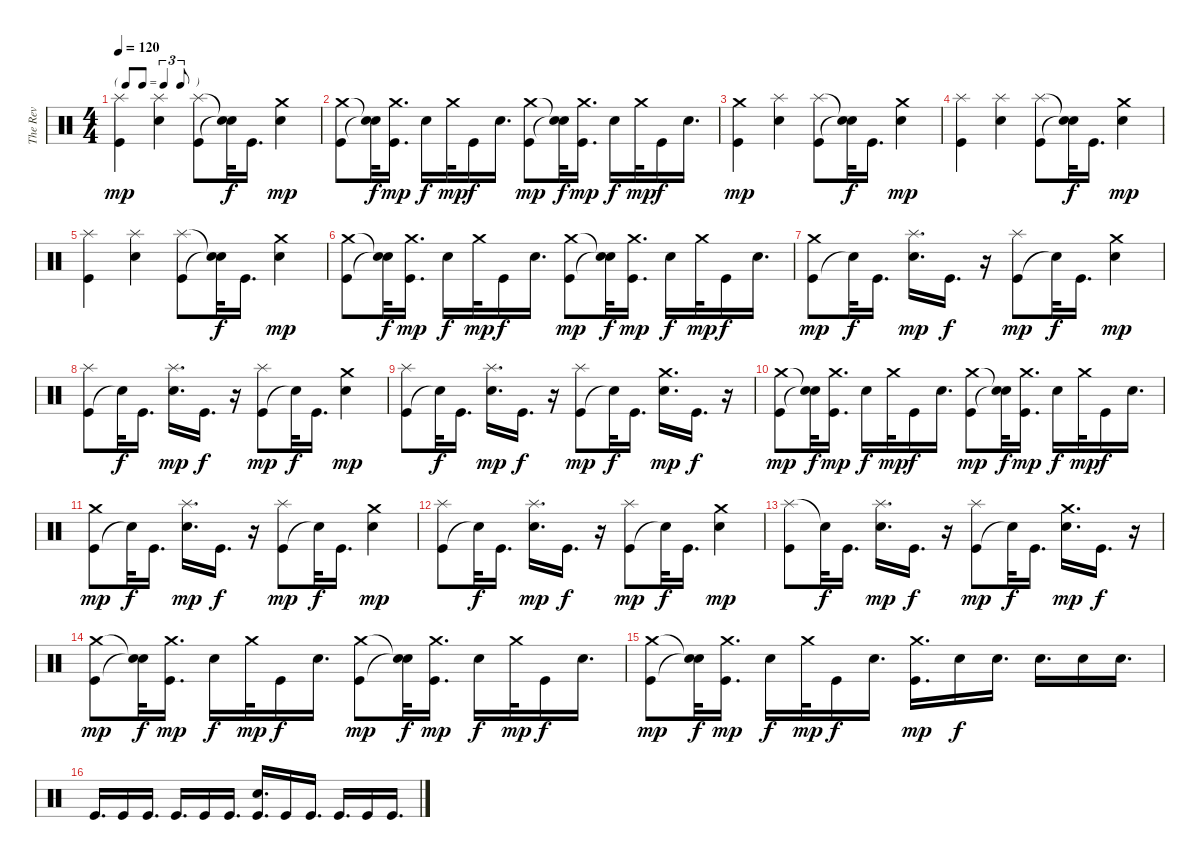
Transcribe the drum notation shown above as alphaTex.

\track ("The Rev" "The Rev") {instrument percussion}
\staff {score}
\articulation defaults
\ts (4 4)
\tf triplet8th
\tempo 120
\clef neutral
\ks c
("Kick (hit)" "Splash (hit)").4{dy mp} ("Electric Snare (hit)" "Splash (hit)").4 ("Kick (hit)" "Splash (hit)").8 ("Snare (hit)"{t} "Snare (hit)"{t}).32{dy f} "Kick (hit)".16{d} ("Electric Snare (hit)" "Crash medium (hit)").4{dy mp} |
("Crash medium (hit)" "Kick (hit)").8 ("Snare (hit)"{t} "Snare (hit)"{t}).32{dy f} ("Crash medium (hit)" "Kick (hit)").16{d dy mp} "Electric Snare (hit)".16{dy f} "Crash medium (hit)".32{dy mp} "Kick (hit)".16{dy f} "Electric Snare (hit)".16{d} ("Crash medium (hit)" "Kick (hit)").8{dy mp} ("Snare (hit)"{t} "Snare (hit)"{t}).32{dy f} ("Crash medium (hit)" "Kick (hit)").16{d dy mp} "Electric Snare (hit)".16{dy f} "Crash medium (hit)".32{dy mp} "Kick (hit)".16{dy f} "Electric Snare (hit)".16{d} |
("Kick (hit)" "Crash medium (hit)").4{dy mp} ("Electric Snare (hit)" "Splash (hit)").4 ("Kick (hit)" "Splash (hit)").8 ("Snare (hit)"{t} "Snare (hit)"{t}).32{dy f} "Kick (hit)".16{d} ("Electric Snare (hit)" "Crash medium (hit)").4{dy mp} |
("Kick (hit)" "Splash (hit)").4 ("Electric Snare (hit)" "Splash (hit)").4 ("Kick (hit)" "Splash (hit)").8 ("Snare (hit)"{t} "Snare (hit)"{t}).32{dy f} "Kick (hit)".16{d} ("Electric Snare (hit)" "Crash medium (hit)").4{dy mp} |
("Kick (hit)" "Splash (hit)").4 ("Electric Snare (hit)" "Splash (hit)").4 ("Kick (hit)" "Splash (hit)").8 ("Snare (hit)"{t} "Snare (hit)"{t}).32{dy f} "Kick (hit)".16{d} ("Electric Snare (hit)" "Crash medium (hit)").4{dy mp} |
("Crash medium (hit)" "Kick (hit)").8 ("Snare (hit)"{t} "Snare (hit)"{t}).32{dy f} ("Crash medium (hit)" "Kick (hit)").16{d dy mp} "Electric Snare (hit)".16{dy f} "Crash medium (hit)".32{dy mp} "Kick (hit)".16{dy f} "Electric Snare (hit)".16{d} ("Crash medium (hit)" "Kick (hit)").8{dy mp} ("Snare (hit)"{t} "Snare (hit)"{t}).32{dy f} ("Crash medium (hit)" "Kick (hit)").16{d dy mp} "Electric Snare (hit)".16{dy f} "Crash medium (hit)".32{dy mp} "Kick (hit)".16{dy f} "Electric Snare (hit)".16{d} |
("Kick (hit)" "Crash medium (hit)").8{dy mp} "Snare (hit)"{t}.32{dy f} "Kick (hit)".16{d} ("Electric Snare (hit)" "Splash (hit)").16{d dy mp} "Kick (hit)".16{d dy f} r.16 ("Kick (hit)" "Splash (hit)").8{dy mp} "Snare (hit)"{t}.32{dy f} "Kick (hit)".16{d} ("Electric Snare (hit)" "Crash medium (hit)").4{dy mp} |
("Kick (hit)" "Splash (hit)").8 "Snare (hit)"{t}.32{dy f} "Kick (hit)".16{d} ("Electric Snare (hit)" "Splash (hit)").16{d dy mp} "Kick (hit)".16{d dy f} r.16 ("Kick (hit)" "Splash (hit)").8{dy mp} "Snare (hit)"{t}.32{dy f} "Kick (hit)".16{d} ("Electric Snare (hit)" "Crash medium (hit)").4{dy mp} |
("Kick (hit)" "Splash (hit)").8 "Snare (hit)"{t}.32{dy f} "Kick (hit)".16{d} ("Electric Snare (hit)" "Splash (hit)").16{d dy mp} "Kick (hit)".16{d dy f} r.16 ("Kick (hit)" "Splash (hit)").8{dy mp} "Snare (hit)"{t}.32{dy f} "Kick (hit)".16{d} ("Electric Snare (hit)" "Crash medium (hit)").16{d dy mp} "Kick (hit)".16{d dy f} r.16 |
("Crash medium (hit)" "Kick (hit)").8{dy mp} ("Snare (hit)"{t} "Snare (hit)"{t}).32{dy f} ("Crash medium (hit)" "Kick (hit)").16{d dy mp} "Electric Snare (hit)".16{dy f} "Crash medium (hit)".32{dy mp} "Kick (hit)".16{dy f} "Electric Snare (hit)".16{d} ("Crash medium (hit)" "Kick (hit)").8{dy mp} ("Snare (hit)"{t} "Snare (hit)"{t}).32{dy f} ("Crash medium (hit)" "Kick (hit)").16{d dy mp} "Electric Snare (hit)".16{dy f} "Crash medium (hit)".32{dy mp} "Kick (hit)".16{dy f} "Electric Snare (hit)".16{d} |
("Kick (hit)" "Crash medium (hit)").8{dy mp} "Snare (hit)"{t}.32{dy f} "Kick (hit)".16{d} ("Electric Snare (hit)" "Splash (hit)").16{d dy mp} "Kick (hit)".16{d dy f} r.16 ("Kick (hit)" "Splash (hit)").8{dy mp} "Snare (hit)"{t}.32{dy f} "Kick (hit)".16{d} ("Crash medium (hit)" "Electric Snare (hit)").4{dy mp} |
("Kick (hit)" "Splash (hit)").8 "Snare (hit)"{t}.32{dy f} "Kick (hit)".16{d} ("Electric Snare (hit)" "Splash (hit)").16{d dy mp} "Kick (hit)".16{d dy f} r.16 ("Kick (hit)" "Splash (hit)").8{dy mp} "Snare (hit)"{t}.32{dy f} "Kick (hit)".16{d} ("Electric Snare (hit)" "Crash medium (hit)").4{dy mp} |
("Splash (hit)" "Kick (hit)").8 "Snare (hit)"{t}.32{dy f} "Kick (hit)".16{d} ("Electric Snare (hit)" "Splash (hit)").16{d dy mp} "Kick (hit)".16{d dy f} r.16 ("Kick (hit)" "Splash (hit)").8{dy mp} "Snare (hit)"{t}.32{dy f} "Kick (hit)".16{d} ("Electric Snare (hit)" "Crash medium (hit)").16{d dy mp} "Kick (hit)".16{d dy f} r.16 |
("Crash medium (hit)" "Kick (hit)").8{dy mp} ("Snare (hit)"{t} "Snare (hit)"{t}).32{dy f} ("Crash medium (hit)" "Kick (hit)").16{d dy mp} "Electric Snare (hit)".16{dy f} "Crash medium (hit)".32{dy mp} "Kick (hit)".16{dy f} "Electric Snare (hit)".16{d} ("Crash medium (hit)" "Kick (hit)").8{dy mp} ("Snare (hit)"{t} "Snare (hit)"{t}).32{dy f} ("Crash medium (hit)" "Kick (hit)").16{d dy mp} "Electric Snare (hit)".16{dy f} "Crash medium (hit)".32{dy mp} "Kick (hit)".16{dy f} "Electric Snare (hit)".16{d} |
("Crash medium (hit)" "Kick (hit)").8{dy mp} ("Snare (hit)"{t} "Snare (hit)"{t}).32{dy f} ("Crash medium (hit)" "Kick (hit)").16{d dy mp} "Electric Snare (hit)".16{dy f} "Crash medium (hit)".32{dy mp} "Kick (hit)".16{dy f} "Electric Snare (hit)".16{d} ("Kick (hit)" "Crash medium (hit)").16{d dy mp} "Electric Snare (hit)".16{dy f} "Electric Snare (hit)".16{d} "Electric Snare (hit)".16{d} "Electric Snare (hit)".16 "Electric Snare (hit)".16{d} |
"Kick (hit)".16{d} "Kick (hit)".16 "Kick (hit)".16{d} "Kick (hit)".16{d} "Kick (hit)".16 "Kick (hit)".16{d} ("Electric Snare (hit)" "Kick (hit)").16{d} "Kick (hit)".16 "Kick (hit)".16{d} "Kick (hit)".16{d} "Kick (hit)".16 "Kick (hit)".16{d}
